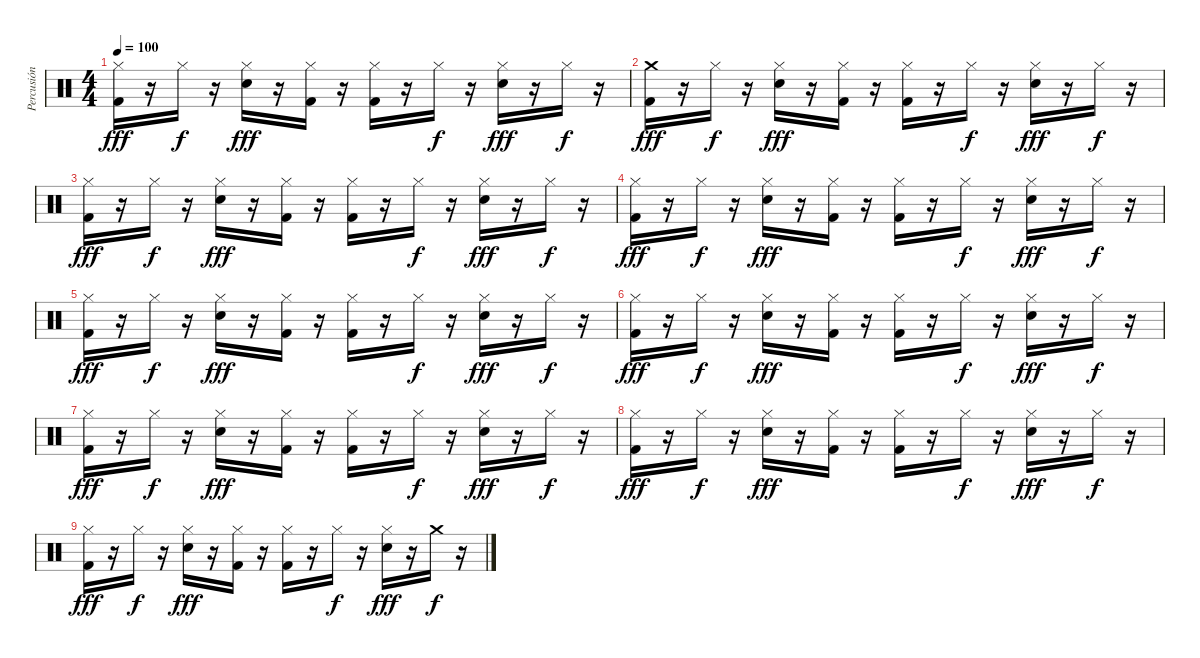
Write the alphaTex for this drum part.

\track ("Percusión" "Percusión") {instrument percussion}
\staff {score}
\articulation defaults
\ts (4 4)
\tempo 100
\clef neutral
\ks c
("Hi-Hat (closed)" "Kick (hit) 2").16{dy fff} r.16 "Hi-Hat (closed)".16{dy f} r.16 ("Hi-Hat (closed)" "Electric Snare (hit)").16{dy fff} r.16 ("Hi-Hat (closed)" "Kick (hit) 2").16 r.16 ("Hi-Hat (closed)" "Kick (hit) 2").16 r.16 "Hi-Hat (closed)".16{dy f} r.16 ("Hi-Hat (closed)" "Electric Snare (hit)").16{dy fff} r.16 "Hi-Hat (closed)".16{dy f} r.16 |
("Crash medium (hit)" "Kick (hit) 2").16{dy fff} r.16 "Hi-Hat (closed)".16{dy f} r.16 ("Hi-Hat (closed)" "Electric Snare (hit)").16{dy fff} r.16 ("Hi-Hat (closed)" "Kick (hit) 2").16 r.16 ("Hi-Hat (closed)" "Kick (hit) 2").16 r.16 "Hi-Hat (closed)".16{dy f} r.16 ("Hi-Hat (closed)" "Electric Snare (hit)").16{dy fff} r.16 "Hi-Hat (closed)".16{dy f} r.16 |
("Hi-Hat (closed)" "Kick (hit) 2").16{dy fff} r.16 "Hi-Hat (closed)".16{dy f} r.16 ("Hi-Hat (closed)" "Electric Snare (hit)").16{dy fff} r.16 ("Hi-Hat (closed)" "Kick (hit) 2").16 r.16 ("Hi-Hat (closed)" "Kick (hit) 2").16 r.16 "Hi-Hat (closed)".16{dy f} r.16 ("Hi-Hat (closed)" "Electric Snare (hit)").16{dy fff} r.16 "Hi-Hat (closed)".16{dy f} r.16 |
("Hi-Hat (closed)" "Kick (hit) 2").16{dy fff} r.16 "Hi-Hat (closed)".16{dy f} r.16 ("Hi-Hat (closed)" "Electric Snare (hit)").16{dy fff} r.16 ("Hi-Hat (closed)" "Kick (hit) 2").16 r.16 ("Hi-Hat (closed)" "Kick (hit) 2").16 r.16 "Hi-Hat (closed)".16{dy f} r.16 ("Hi-Hat (closed)" "Electric Snare (hit)").16{dy fff} r.16 "Hi-Hat (closed)".16{dy f} r.16 |
("Hi-Hat (closed)" "Kick (hit) 2").16{dy fff} r.16 "Hi-Hat (closed)".16{dy f} r.16 ("Hi-Hat (closed)" "Electric Snare (hit)").16{dy fff} r.16 ("Hi-Hat (closed)" "Kick (hit) 2").16 r.16 ("Hi-Hat (closed)" "Kick (hit) 2").16 r.16 "Hi-Hat (closed)".16{dy f} r.16 ("Hi-Hat (closed)" "Electric Snare (hit)").16{dy fff} r.16 "Hi-Hat (closed)".16{dy f} r.16 |
("Hi-Hat (closed)" "Kick (hit) 2").16{dy fff} r.16 "Hi-Hat (closed)".16{dy f} r.16 ("Hi-Hat (closed)" "Electric Snare (hit)").16{dy fff} r.16 ("Hi-Hat (closed)" "Kick (hit) 2").16 r.16 ("Hi-Hat (closed)" "Kick (hit) 2").16 r.16 "Hi-Hat (closed)".16{dy f} r.16 ("Hi-Hat (closed)" "Electric Snare (hit)").16{dy fff} r.16 "Hi-Hat (closed)".16{dy f} r.16 |
("Hi-Hat (closed)" "Kick (hit) 2").16{dy fff} r.16 "Hi-Hat (closed)".16{dy f} r.16 ("Hi-Hat (closed)" "Electric Snare (hit)").16{dy fff} r.16 ("Hi-Hat (closed)" "Kick (hit) 2").16 r.16 ("Hi-Hat (closed)" "Kick (hit) 2").16 r.16 "Hi-Hat (closed)".16{dy f} r.16 ("Hi-Hat (closed)" "Electric Snare (hit)").16{dy fff} r.16 "Hi-Hat (closed)".16{dy f} r.16 |
("Hi-Hat (closed)" "Kick (hit) 2").16{dy fff} r.16 "Hi-Hat (closed)".16{dy f} r.16 ("Hi-Hat (closed)" "Electric Snare (hit)").16{dy fff} r.16 ("Hi-Hat (closed)" "Kick (hit) 2").16 r.16 ("Hi-Hat (closed)" "Kick (hit) 2").16 r.16 "Hi-Hat (closed)".16{dy f} r.16 ("Hi-Hat (closed)" "Electric Snare (hit)").16{dy fff} r.16 "Hi-Hat (closed)".16{dy f} r.16 |
("Hi-Hat (closed)" "Kick (hit) 2").16{dy fff} r.16 "Hi-Hat (closed)".16{dy f} r.16 ("Hi-Hat (closed)" "Electric Snare (hit)").16{dy fff} r.16 ("Hi-Hat (closed)" "Kick (hit) 2").16 r.16 ("Hi-Hat (closed)" "Kick (hit) 2").16 r.16 "Hi-Hat (closed)".16{dy f} r.16 ("Hi-Hat (closed)" "Electric Snare (hit)").16{dy fff} r.16 "Crash medium (hit)".16{dy f} r.16
